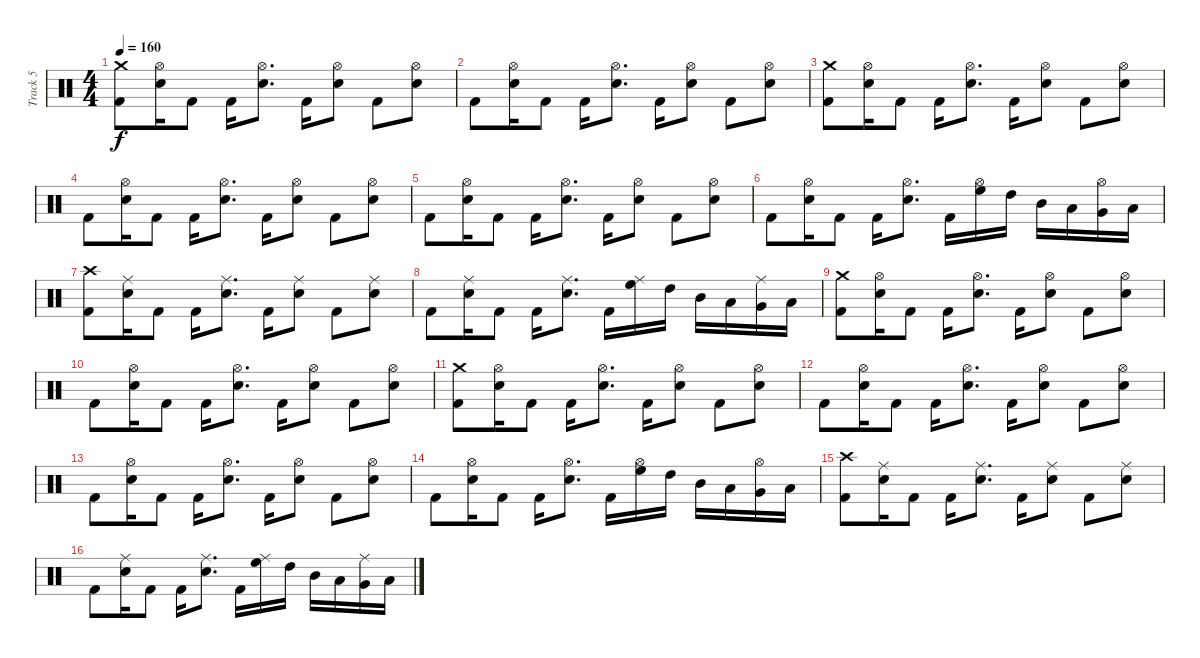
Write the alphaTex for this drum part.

\track ("Track 5" "Track 5") {instrument percussion}
\staff {score}
\articulation defaults
\ts (4 4)
\tempo 160
\clef neutral
\ks c
("Crash medium (hit)" "Kick (hit) 2").8{dy f} ("Hi-Hat (open)" "Snare (hit) 2").16 "Kick (hit) 2".8 "Kick (hit) 2".16 ("Hi-Hat (open)" "Snare (hit) 2").8{d} "Kick (hit) 2".16 ("Hi-Hat (open)" "Snare (hit) 2").8 "Kick (hit) 2".8 ("Hi-Hat (open)" "Snare (hit) 2").8 |
"Kick (hit) 2".8 ("Hi-Hat (open)" "Snare (hit) 2").16 "Kick (hit) 2".8 "Kick (hit) 2".16 ("Hi-Hat (open)" "Snare (hit) 2").8{d} "Kick (hit) 2".16 ("Hi-Hat (open)" "Snare (hit) 2").8 "Kick (hit) 2".8 ("Hi-Hat (open)" "Snare (hit) 2").8 |
("Crash medium (hit)" "Kick (hit) 2").8 ("Hi-Hat (open)" "Snare (hit) 2").16 "Kick (hit) 2".8 "Kick (hit) 2".16 ("Hi-Hat (open)" "Snare (hit) 2").8{d} "Kick (hit) 2".16 ("Hi-Hat (open)" "Snare (hit) 2").8 "Kick (hit) 2".8 ("Hi-Hat (open)" "Snare (hit) 2").8 |
"Kick (hit) 2".8 ("Hi-Hat (open)" "Snare (hit) 2").16 "Kick (hit) 2".8 "Kick (hit) 2".16 ("Hi-Hat (open)" "Snare (hit) 2").8{d} "Kick (hit) 2".16 ("Hi-Hat (open)" "Snare (hit) 2").8 "Kick (hit) 2".8 ("Hi-Hat (open)" "Snare (hit) 2").8 |
"Kick (hit) 2".8 ("Hi-Hat (open)" "Snare (hit) 2").16 "Kick (hit) 2".8 "Kick (hit) 2".16 ("Hi-Hat (open)" "Snare (hit) 2").8{d} "Kick (hit) 2".16 ("Hi-Hat (open)" "Snare (hit) 2").8 "Kick (hit) 2".8 ("Hi-Hat (open)" "Snare (hit) 2").8 |
"Kick (hit) 2".8 ("Hi-Hat (open)" "Snare (hit) 2").16 "Kick (hit) 2".8 "Kick (hit) 2".16 ("Hi-Hat (open)" "Snare (hit) 2").8{d} "Kick (hit) 2".16 ("Hi-Hat (open)" "High Floor Tom (hit)").16 "High Tom (hit)".16 "Mid Tom (hit)".16 "Low Tom (hit)".16 ("Hi-Hat (open)" "Very Low Tom (hit)").16 "Low Floor Tom (hit)".16 |
("Crash high (hit)" "Kick (hit) 2").8 ("Ride (middle)" "Snare (hit) 2").16 "Kick (hit) 2".8 "Kick (hit) 2".16 ("Ride (middle)" "Snare (hit) 2").8{d} "Kick (hit) 2".16 ("Ride (middle)" "Snare (hit) 2").8 "Kick (hit) 2".8 ("Ride (middle)" "Snare (hit) 2").8 |
"Kick (hit) 2".8 ("Ride (middle)" "Snare (hit) 2").16 "Kick (hit) 2".8 "Kick (hit) 2".16 ("Ride (middle)" "Snare (hit) 2").8{d} "Kick (hit) 2".16 ("Ride (middle)" "High Floor Tom (hit)").16 "High Tom (hit)".16 "Mid Tom (hit)".16 "Low Tom (hit)".16 ("Ride (middle)" "Very Low Tom (hit)").16 "Low Floor Tom (hit)".16 |
("Crash medium (hit)" "Kick (hit) 2").8 ("Hi-Hat (open)" "Snare (hit) 2").16 "Kick (hit) 2".8 "Kick (hit) 2".16 ("Hi-Hat (open)" "Snare (hit) 2").8{d} "Kick (hit) 2".16 ("Hi-Hat (open)" "Snare (hit) 2").8 "Kick (hit) 2".8 ("Hi-Hat (open)" "Snare (hit) 2").8 |
"Kick (hit) 2".8 ("Hi-Hat (open)" "Snare (hit) 2").16 "Kick (hit) 2".8 "Kick (hit) 2".16 ("Hi-Hat (open)" "Snare (hit) 2").8{d} "Kick (hit) 2".16 ("Hi-Hat (open)" "Snare (hit) 2").8 "Kick (hit) 2".8 ("Hi-Hat (open)" "Snare (hit) 2").8 |
("Crash medium (hit)" "Kick (hit) 2").8 ("Hi-Hat (open)" "Snare (hit) 2").16 "Kick (hit) 2".8 "Kick (hit) 2".16 ("Hi-Hat (open)" "Snare (hit) 2").8{d} "Kick (hit) 2".16 ("Hi-Hat (open)" "Snare (hit) 2").8 "Kick (hit) 2".8 ("Hi-Hat (open)" "Snare (hit) 2").8 |
"Kick (hit) 2".8 ("Hi-Hat (open)" "Snare (hit) 2").16 "Kick (hit) 2".8 "Kick (hit) 2".16 ("Hi-Hat (open)" "Snare (hit) 2").8{d} "Kick (hit) 2".16 ("Hi-Hat (open)" "Snare (hit) 2").8 "Kick (hit) 2".8 ("Hi-Hat (open)" "Snare (hit) 2").8 |
"Kick (hit) 2".8 ("Hi-Hat (open)" "Snare (hit) 2").16 "Kick (hit) 2".8 "Kick (hit) 2".16 ("Hi-Hat (open)" "Snare (hit) 2").8{d} "Kick (hit) 2".16 ("Hi-Hat (open)" "Snare (hit) 2").8 "Kick (hit) 2".8 ("Hi-Hat (open)" "Snare (hit) 2").8 |
"Kick (hit) 2".8 ("Hi-Hat (open)" "Snare (hit) 2").16 "Kick (hit) 2".8 "Kick (hit) 2".16 ("Hi-Hat (open)" "Snare (hit) 2").8{d} "Kick (hit) 2".16 ("Hi-Hat (open)" "High Floor Tom (hit)").16 "High Tom (hit)".16 "Mid Tom (hit)".16 "Low Tom (hit)".16 ("Hi-Hat (open)" "Very Low Tom (hit)").16 "Low Floor Tom (hit)".16 |
("Crash high (hit)" "Kick (hit) 2").8 ("Ride (middle)" "Snare (hit) 2").16 "Kick (hit) 2".8 "Kick (hit) 2".16 ("Ride (middle)" "Snare (hit) 2").8{d} "Kick (hit) 2".16 ("Ride (middle)" "Snare (hit) 2").8 "Kick (hit) 2".8 ("Ride (middle)" "Snare (hit) 2").8 |
"Kick (hit) 2".8 ("Ride (middle)" "Snare (hit) 2").16 "Kick (hit) 2".8 "Kick (hit) 2".16 ("Ride (middle)" "Snare (hit) 2").8{d} "Kick (hit) 2".16 ("Ride (middle)" "High Floor Tom (hit)").16 "High Tom (hit)".16 "Mid Tom (hit)".16 "Low Tom (hit)".16 ("Ride (middle)" "Very Low Tom (hit)").16 "Low Floor Tom (hit)".16
